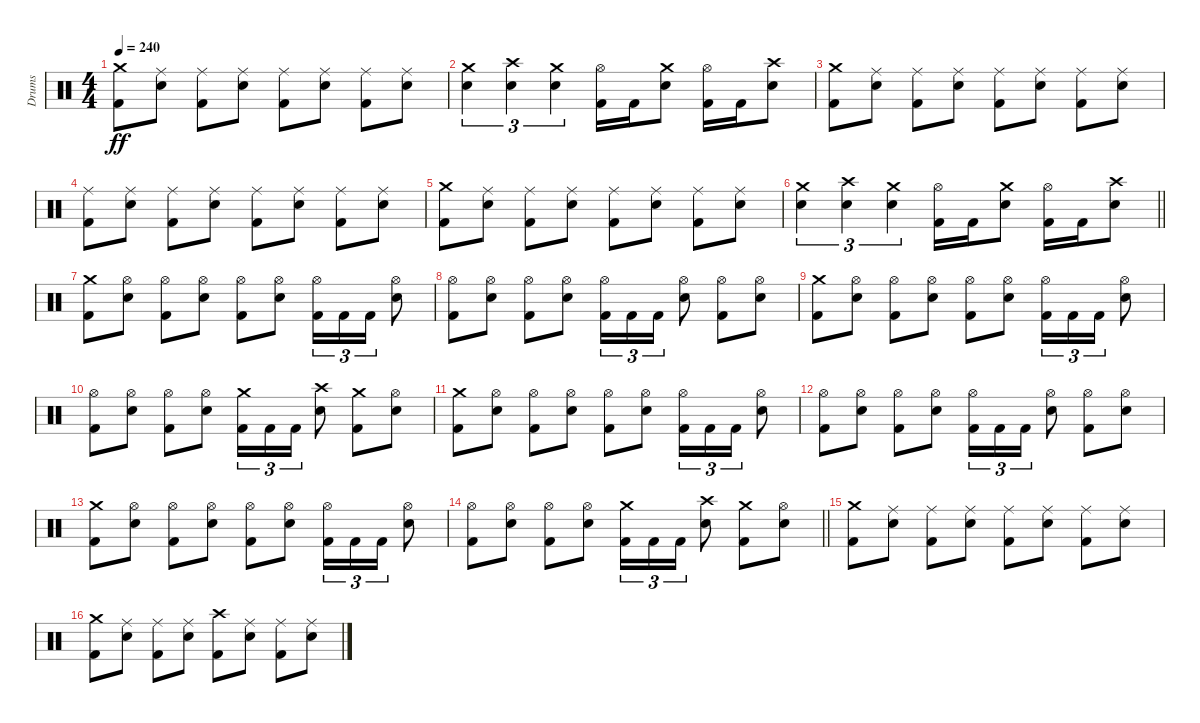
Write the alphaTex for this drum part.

\track ("Drums" "Drums") {instrument percussion}
\staff {score}
\articulation defaults
\ts (4 4)
\tempo 240
\clef neutral
\ks c
("Crash medium (hit)" "Kick (hit) 2").8{dy ff} ("Ride (middle)" "Snare (hit) 2").8 ("Ride (middle)" "Kick (hit) 2").8 ("Ride (middle)" "Snare (hit) 2").8 ("Ride (middle)" "Kick (hit) 2").8 ("Ride (middle)" "Snare (hit) 2").8 ("Ride (middle)" "Kick (hit) 2").8 ("Ride (middle)" "Snare (hit) 2").8 |
("Crash medium (hit)" "Snare (hit) 2").4{tu (3 2)} ("Crash high (hit)" "Snare (hit) 2").4{tu (3 2)} ("Crash medium (hit)" "Snare (hit) 2").4{tu (3 2)} ("Hi-Hat (open)" "Kick (hit) 2").16 "Kick (hit) 2".16 ("Crash medium (hit)" "Snare (hit) 2").8 ("Hi-Hat (open)" "Kick (hit) 2").16 "Kick (hit) 2".16 ("Crash high (hit)" "Snare (hit) 2").8 |
("Crash medium (hit)" "Kick (hit) 2").8 ("Ride (middle)" "Snare (hit) 2").8 ("Ride (middle)" "Kick (hit) 2").8 ("Ride (middle)" "Snare (hit) 2").8 ("Ride (middle)" "Kick (hit) 2").8 ("Ride (middle)" "Snare (hit) 2").8 ("Ride (middle)" "Kick (hit) 2").8 ("Ride (middle)" "Snare (hit) 2").8 |
("Ride (middle)" "Kick (hit) 2").8 ("Ride (middle)" "Snare (hit) 2").8 ("Ride (middle)" "Kick (hit) 2").8 ("Ride (middle)" "Snare (hit) 2").8 ("Ride (middle)" "Kick (hit) 2").8 ("Ride (middle)" "Snare (hit) 2").8 ("Ride (middle)" "Kick (hit) 2").8 ("Ride (middle)" "Snare (hit) 2").8 |
("Crash medium (hit)" "Kick (hit) 2").8 ("Ride (middle)" "Snare (hit) 2").8 ("Ride (middle)" "Kick (hit) 2").8 ("Ride (middle)" "Snare (hit) 2").8 ("Ride (middle)" "Kick (hit) 2").8 ("Ride (middle)" "Snare (hit) 2").8 ("Ride (middle)" "Kick (hit) 2").8 ("Ride (middle)" "Snare (hit) 2").8 |
\barLineRight lightlight
("Crash medium (hit)" "Snare (hit) 2").4{tu (3 2)} ("Crash high (hit)" "Snare (hit) 2").4{tu (3 2)} ("Crash medium (hit)" "Snare (hit) 2").4{tu (3 2)} ("Hi-Hat (open)" "Kick (hit) 2").16 "Kick (hit) 2".16 ("Crash medium (hit)" "Snare (hit) 2").8 ("Hi-Hat (open)" "Kick (hit) 2").16 "Kick (hit) 2".16 ("Crash high (hit)" "Snare (hit) 2").8 |
("Crash medium (hit)" "Kick (hit) 2").8 ("Hi-Hat (open)" "Snare (hit) 2").8 ("Hi-Hat (open)" "Kick (hit) 2").8 ("Hi-Hat (open)" "Snare (hit) 2").8 ("Hi-Hat (open)" "Kick (hit) 2").8 ("Hi-Hat (open)" "Snare (hit) 2").8 ("Hi-Hat (open)" "Kick (hit) 2").16{tu (3 2)} "Kick (hit) 2".16{tu (3 2)} "Kick (hit) 2".16{tu (3 2)} ("Hi-Hat (open)" "Snare (hit) 2").8 |
("Hi-Hat (open)" "Kick (hit) 2").8 ("Hi-Hat (open)" "Snare (hit) 2").8 ("Hi-Hat (open)" "Kick (hit) 2").8 ("Hi-Hat (open)" "Snare (hit) 2").8 ("Hi-Hat (open)" "Kick (hit) 2").16{tu (3 2)} "Kick (hit) 2".16{tu (3 2)} "Kick (hit) 2".16{tu (3 2)} ("Hi-Hat (open)" "Snare (hit) 2").8 ("Hi-Hat (open)" "Kick (hit) 2").8 ("Hi-Hat (open)" "Snare (hit) 2").8 |
("Crash medium (hit)" "Kick (hit) 2").8 ("Hi-Hat (open)" "Snare (hit) 2").8 ("Hi-Hat (open)" "Kick (hit) 2").8 ("Hi-Hat (open)" "Snare (hit) 2").8 ("Hi-Hat (open)" "Kick (hit) 2").8 ("Hi-Hat (open)" "Snare (hit) 2").8 ("Hi-Hat (open)" "Kick (hit) 2").16{tu (3 2)} "Kick (hit) 2".16{tu (3 2)} "Kick (hit) 2".16{tu (3 2)} ("Hi-Hat (open)" "Snare (hit) 2").8 |
("Hi-Hat (open)" "Kick (hit) 2").8 ("Hi-Hat (open)" "Snare (hit) 2").8 ("Hi-Hat (open)" "Kick (hit) 2").8 ("Hi-Hat (open)" "Snare (hit) 2").8 ("Crash medium (hit)" "Kick (hit) 2").16{tu (3 2)} "Kick (hit) 2".16{tu (3 2)} "Kick (hit) 2".16{tu (3 2)} ("Crash high (hit)" "Snare (hit) 2").8 ("Crash medium (hit)" "Kick (hit) 2").8 ("Hi-Hat (open)" "Snare (hit) 2").8 |
("Crash medium (hit)" "Kick (hit) 2").8 ("Hi-Hat (open)" "Snare (hit) 2").8 ("Hi-Hat (open)" "Kick (hit) 2").8 ("Hi-Hat (open)" "Snare (hit) 2").8 ("Hi-Hat (open)" "Kick (hit) 2").8 ("Hi-Hat (open)" "Snare (hit) 2").8 ("Hi-Hat (open)" "Kick (hit) 2").16{tu (3 2)} "Kick (hit) 2".16{tu (3 2)} "Kick (hit) 2".16{tu (3 2)} ("Hi-Hat (open)" "Snare (hit) 2").8 |
("Hi-Hat (open)" "Kick (hit) 2").8 ("Hi-Hat (open)" "Snare (hit) 2").8 ("Hi-Hat (open)" "Kick (hit) 2").8 ("Hi-Hat (open)" "Snare (hit) 2").8 ("Hi-Hat (open)" "Kick (hit) 2").16{tu (3 2)} "Kick (hit) 2".16{tu (3 2)} "Kick (hit) 2".16{tu (3 2)} ("Hi-Hat (open)" "Snare (hit) 2").8 ("Hi-Hat (open)" "Kick (hit) 2").8 ("Hi-Hat (open)" "Snare (hit) 2").8 |
("Crash medium (hit)" "Kick (hit) 2").8 ("Hi-Hat (open)" "Snare (hit) 2").8 ("Hi-Hat (open)" "Kick (hit) 2").8 ("Hi-Hat (open)" "Snare (hit) 2").8 ("Hi-Hat (open)" "Kick (hit) 2").8 ("Hi-Hat (open)" "Snare (hit) 2").8 ("Hi-Hat (open)" "Kick (hit) 2").16{tu (3 2)} "Kick (hit) 2".16{tu (3 2)} "Kick (hit) 2".16{tu (3 2)} ("Hi-Hat (open)" "Snare (hit) 2").8 |
\barLineRight lightlight
("Hi-Hat (open)" "Kick (hit) 2").8 ("Hi-Hat (open)" "Snare (hit) 2").8 ("Hi-Hat (open)" "Kick (hit) 2").8 ("Hi-Hat (open)" "Snare (hit) 2").8 ("Crash medium (hit)" "Kick (hit) 2").16{tu (3 2)} "Kick (hit) 2".16{tu (3 2)} "Kick (hit) 2".16{tu (3 2)} ("Crash high (hit)" "Snare (hit) 2").8 ("Crash medium (hit)" "Kick (hit) 2").8 ("Hi-Hat (open)" "Snare (hit) 2").8 |
("Crash medium (hit)" "Kick (hit) 2").8 ("Ride (middle)" "Snare (hit) 2").8 ("Ride (middle)" "Kick (hit) 2").8 ("Ride (middle)" "Snare (hit) 2").8 ("Ride (middle)" "Kick (hit) 2").8 ("Ride (middle)" "Snare (hit) 2").8 ("Ride (middle)" "Kick (hit) 2").8 ("Ride (middle)" "Snare (hit) 2").8 |
("Crash medium (hit)" "Kick (hit) 2").8 ("Ride (middle)" "Snare (hit) 2").8 ("Ride (middle)" "Kick (hit) 2").8 ("Ride (middle)" "Snare (hit) 2").8 ("Crash high (hit)" "Kick (hit) 2").8 ("Ride (middle)" "Snare (hit) 2").8 ("Ride (middle)" "Kick (hit) 2").8 ("Ride (middle)" "Snare (hit) 2").8
